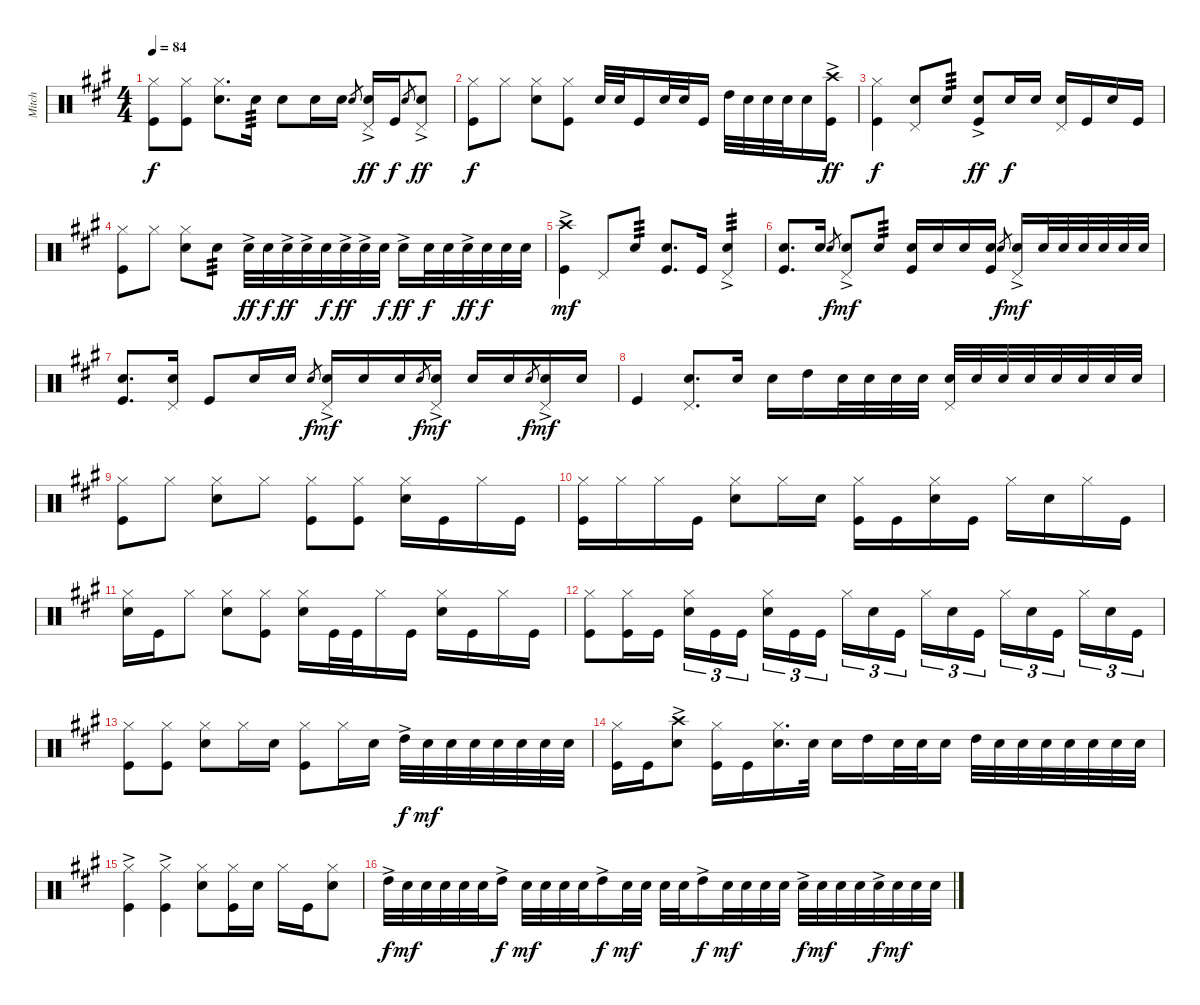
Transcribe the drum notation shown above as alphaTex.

\track ("Mitch" "Mitch") {instrument percussion}
\staff {score}
\articulation defaults
\ts (4 4)
\tempo 84
\clef neutral
\ks a
("Hi-Hat (closed)" "Kick (hit)").8{dy f} ("Hi-Hat (closed)" "Kick (hit)").8 ("Hi-Hat (closed)" "Snare (hit) 2").8{d} "Snare (hit) 2".16{tp 3} "Snare (hit) 2".8 "Snare (hit) 2".16 "Snare (hit) 2".16 "Snare (hit) 2".8{gr} ("Snare (hit) 2"{ac} "Pedal Hi-Hat (hit)").16{dy ff} "Kick (hit)".16{dy f} "Snare (hit) 2".8{gr} ("Snare (hit) 2"{ac} "Pedal Hi-Hat (hit)").8{dy ff} |
("Hi-Hat (closed)" "Kick (hit)").8{dy f} "Hi-Hat (closed)".8 ("Hi-Hat (closed)" "Snare (hit) 2").8 ("Hi-Hat (closed)" "Kick (hit)").8 "Snare (hit) 2".32 "Snare (hit) 2".32 "Kick (hit)".16 "Snare (hit) 2".32 "Snare (hit) 2".32 "Kick (hit)".16 "High Tom (hit)".32 "Snare (hit) 2".32 "Snare (hit) 2".32 "Snare (hit) 2".32 "Snare (hit) 2".16 ("Crash high (hit)"{ac} "Kick (hit)").16{dy ff} |
("Hi-Hat (closed)" "Kick (hit)").4{dy f} ("Snare (hit) 2" "Pedal Hi-Hat (hit)").8 "Snare (hit) 2".8{tp 3} ("Snare (hit) 2"{ac} "Kick (hit)").8{dy ff} "Snare (hit) 2".16{dy f} "Snare (hit) 2".16 ("Snare (hit) 2" "Pedal Hi-Hat (hit)").16 "Kick (hit)".16 "Snare (hit) 2".16 "Kick (hit)".16 |
("Hi-Hat (closed)" "Kick (hit)").8 "Hi-Hat (closed)".8 ("Hi-Hat (closed)" "Snare (hit) 2").8 "Snare (hit) 2".8{tp 3} "Snare (hit) 2"{ac}.32{dy ff} "Snare (hit) 2".32{dy f} "Snare (hit) 2"{ac}.32{dy ff} "Snare (hit) 2"{ac}.32 "Snare (hit) 2".32{dy f} "Snare (hit) 2"{ac}.32{dy ff} "Snare (hit) 2"{ac}.32 "Snare (hit) 2".32{dy f} "Snare (hit) 2"{ac}.16{dy ff} "Snare (hit) 2".32{dy f} "Snare (hit) 2".32 "Snare (hit) 2"{ac}.32{dy ff} "Snare (hit) 2".32{dy f} "Snare (hit) 2".32 "Snare (hit) 2".32 |
("Crash high (hit)"{ac} "Kick (hit)").4{dy mf} "Pedal Hi-Hat (hit)".8 "Snare (hit) 2".8{tp 3} ("Snare (hit) 2" "Kick (hit)").8{d} "Kick (hit)".16 ("Snare (hit) 2" "Pedal Hi-Hat (hit)"{ac}).4{tp 3} |
("Snare (hit) 2" "Kick (hit)").8{d} "Snare (hit) 2".16 "Snare (hit) 2".8{gr dy f} ("Snare (hit) 2"{ac} "Pedal Hi-Hat (hit)").8{dy mf} "Snare (hit) 2".8{tp 3} ("Snare (hit) 2" "Kick (hit)").16 "Snare (hit) 2".16 "Snare (hit) 2".16 ("Snare (hit) 2" "Kick (hit)").16 "Snare (hit) 2".8{gr dy f} ("Snare (hit) 2"{ac} "Pedal Hi-Hat (hit)").16{dy mf} "Snare (hit) 2".32 "Snare (hit) 2".32 "Snare (hit) 2".32 "Snare (hit) 2".32 "Snare (hit) 2".32 "Snare (hit) 2".32 |
("Snare (hit) 2" "Kick (hit)").8{d} ("Snare (hit) 2" "Pedal Hi-Hat (hit)").16 "Kick (hit)".8 "Snare (hit) 2".16 "Snare (hit) 2".16 "Snare (hit) 2".8{gr dy f} ("Snare (hit) 2"{ac} "Pedal Hi-Hat (hit)").16{dy mf} "Snare (hit) 2".16 "Snare (hit) 2".16 "Snare (hit) 2".8{gr dy f} ("Snare (hit) 2"{ac} "Pedal Hi-Hat (hit)").16{dy mf} "Snare (hit) 2".16 "Snare (hit) 2".16 "Snare (hit) 2".8{gr dy f} ("Snare (hit) 2"{ac} "Pedal Hi-Hat (hit)").16{dy mf} "Snare (hit) 2".16 |
"Kick (hit)".4 ("Snare (hit) 2" "Pedal Hi-Hat (hit)").8{d} "Snare (hit) 2".16 "Snare (hit) 2".16 "High Tom (hit)".16 "Snare (hit) 2".32 "Snare (hit) 2".32 "Snare (hit) 2".32 "Snare (hit) 2".32 ("Snare (hit) 2" "Pedal Hi-Hat (hit)").32 "Snare (hit) 2".32 "Snare (hit) 2".32 "Snare (hit) 2".32 "Snare (hit) 2".32 "Snare (hit) 2".32 "Snare (hit) 2".32 "Snare (hit) 2".32 |
("Hi-Hat (closed)" "Kick (hit)").8 "Hi-Hat (closed)".8 ("Hi-Hat (closed)" "Snare (hit) 2").8 "Hi-Hat (closed)".8 ("Hi-Hat (closed)" "Kick (hit)").8 ("Hi-Hat (closed)" "Kick (hit)").8 ("Hi-Hat (closed)" "Snare (hit) 2").16 "Kick (hit)".16 "Hi-Hat (closed)".16 "Kick (hit)".16 |
("Hi-Hat (closed)" "Kick (hit)").16 "Hi-Hat (closed)".16 "Hi-Hat (closed)".16 "Kick (hit)".16 ("Hi-Hat (closed)" "Snare (hit) 2").8 "Hi-Hat (closed)".16 "Snare (hit) 2".16 ("Hi-Hat (closed)" "Kick (hit)").16 "Kick (hit)".16 ("Hi-Hat (closed)" "Snare (hit) 2").16 "Kick (hit)".16 "Hi-Hat (closed)".16 "Snare (hit) 2".16 "Hi-Hat (closed)".16 "Kick (hit)".16 |
("Hi-Hat (closed)" "Snare (hit) 2").16 "Kick (hit)".16 "Hi-Hat (closed)".8 ("Hi-Hat (closed)" "Snare (hit) 2").8 ("Hi-Hat (closed)" "Kick (hit)").8 ("Hi-Hat (closed)" "Snare (hit) 2").16 "Kick (hit)".32 "Kick (hit)".32 "Hi-Hat (closed)".16 "Kick (hit)".16 ("Hi-Hat (closed)" "Snare (hit) 2").16 "Kick (hit)".16 "Hi-Hat (closed)".16 "Kick (hit)".16 |
("Hi-Hat (closed)" "Kick (hit)").8 ("Hi-Hat (closed)" "Kick (hit)").16 "Kick (hit)".16 ("Hi-Hat (closed)" "Snare (hit) 2").16{tu (3 2)} "Kick (hit)".16{tu (3 2)} "Kick (hit)".16{tu (3 2) beam splitsecondary} ("Hi-Hat (closed)" "Snare (hit) 2").16{tu (3 2)} "Kick (hit)".16{tu (3 2)} "Kick (hit)".16{tu (3 2)} "Hi-Hat (closed)".16{tu (3 2)} "Snare (hit) 2".16{tu (3 2)} "Kick (hit)".16{tu (3 2) beam splitsecondary} "Hi-Hat (closed)".16{tu (3 2)} "Snare (hit) 2".16{tu (3 2)} "Kick (hit)".16{tu (3 2)} "Hi-Hat (closed)".16{tu (3 2)} "Snare (hit) 2".16{tu (3 2)} "Kick (hit)".16{tu (3 2) beam splitsecondary} "Hi-Hat (closed)".16{tu (3 2)} "Snare (hit) 2".16{tu (3 2)} "Kick (hit)".16{tu (3 2)} |
("Hi-Hat (closed)" "Kick (hit)").8 ("Hi-Hat (closed)" "Kick (hit)").8 ("Hi-Hat (closed)" "Snare (hit) 2").8 "Hi-Hat (closed)".16 "Snare (hit) 2".16 ("Hi-Hat (closed)" "Kick (hit)").8 "Hi-Hat (closed)".16 "Snare (hit) 2".16 "High Tom (hit)"{ac}.32{dy f} "Snare (hit) 2".32{dy mf} "Snare (hit) 2".32 "Snare (hit) 2".32 "Snare (hit) 2".32 "Snare (hit) 2".32 "Snare (hit) 2".32 "Snare (hit) 2".32 |
("Hi-Hat (closed)" "Kick (hit)").16 "Kick (hit)".16 ("Crash high (hit)"{ac} "Snare (hit) 2").8 ("Hi-Hat (closed)" "Kick (hit)").16 "Kick (hit)".16 ("Hi-Hat (closed)" "Snare (hit) 2").16{d} "Snare (hit) 2".32 "Snare (hit) 2".16 "High Tom (hit)".16 "Snare (hit) 2".32 "Snare (hit) 2".32 "Snare (hit) 2".16 "High Tom (hit)".32 "Snare (hit) 2".32 "Snare (hit) 2".32 "Snare (hit) 2".32 "Snare (hit) 2".32 "Snare (hit) 2".32 "Snare (hit) 2".32 "Snare (hit) 2".32 |
("Hi-Hat (closed)"{ac} "Kick (hit)").4 ("Hi-Hat (closed)"{ac} "Kick (hit)").4 ("Hi-Hat (closed)" "Snare (hit) 2").8 ("Hi-Hat (closed)" "Kick (hit)").16 "Snare (hit) 2".16 "Hi-Hat (closed)".16 "Kick (hit)".16 ("Hi-Hat (closed)" "Snare (hit) 2").8 |
"High Tom (hit)"{ac}.32{dy f} "Snare (hit) 2".32{dy mf} "Snare (hit) 2".32 "Snare (hit) 2".32 "Snare (hit) 2".32 "Snare (hit) 2".32 "High Tom (hit)"{ac}.16{dy f} "Snare (hit) 2".32{dy mf} "Snare (hit) 2".32 "Snare (hit) 2".32 "Snare (hit) 2".32 "High Tom (hit)"{ac}.16{dy f} "Snare (hit) 2".32{dy mf} "Snare (hit) 2".32 "Snare (hit) 2".32 "Snare (hit) 2".32 "High Tom (hit)"{ac}.16{dy f} "Snare (hit) 2".32{dy mf} "Snare (hit) 2".32 "Snare (hit) 2".32 "Snare (hit) 2".32 "Snare (hit) 2"{ac}.32{dy f} "Snare (hit) 2".32{dy mf} "Snare (hit) 2".32 "Snare (hit) 2".32 "Snare (hit) 2"{ac}.32{dy f} "Snare (hit) 2".32{dy mf} "Snare (hit) 2".32 "Snare (hit) 2".32
